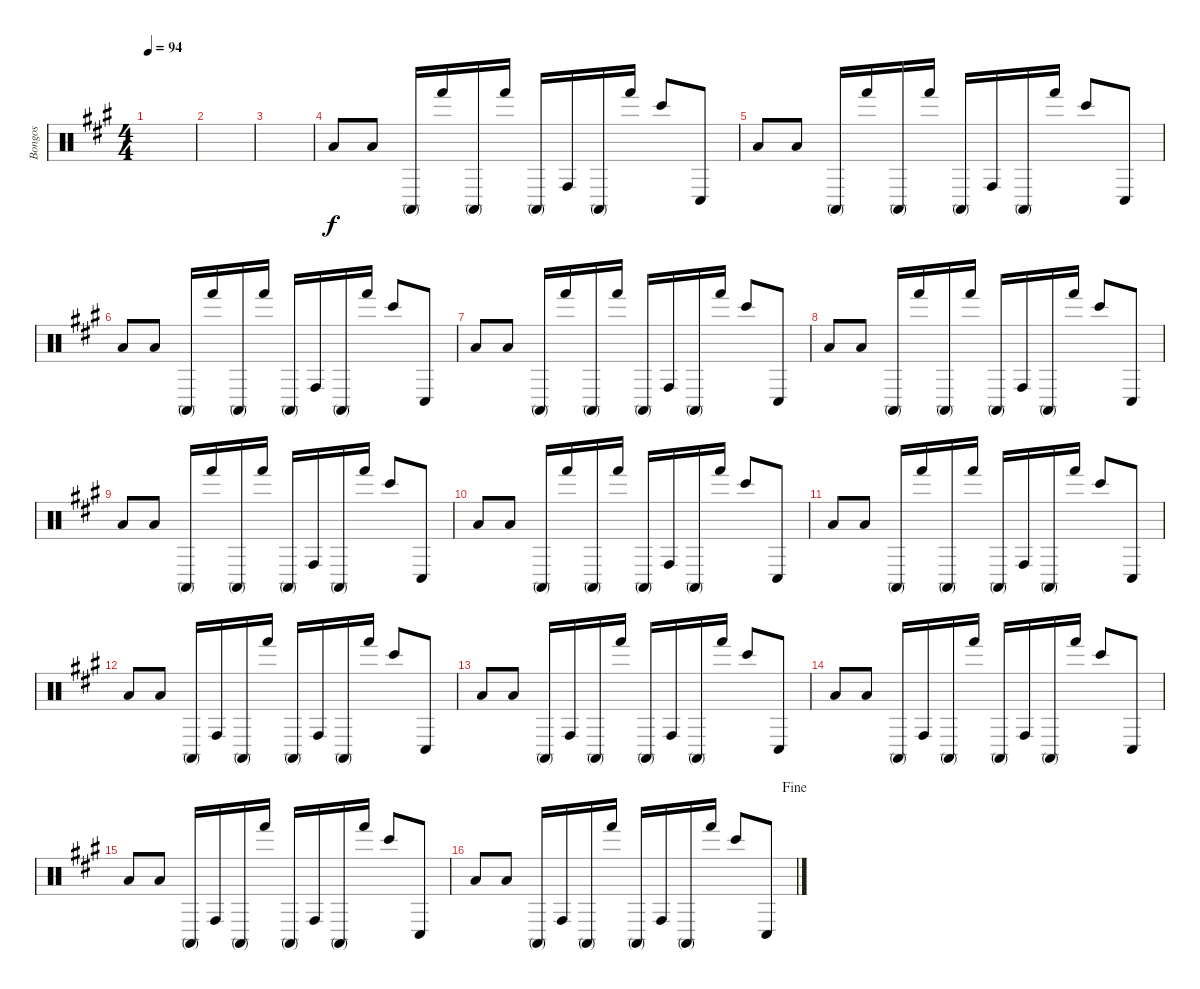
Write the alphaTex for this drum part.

\track ("Bongos" "Bongos") {instrument percussion}
\staff {score}
\articulation defaults
\ts (4 4)
\tempo 94
\clef neutral
\ks a
|
|
|
"Low Floor Tom (hit)".8{volume 3} "Low Floor Tom (hit)".8 "Conga high (mute)".16 "Hand (hit)".16 "Conga high (mute)".16 "Hand (hit)".16 "Conga high (mute)".16 "Conga high (hit)".16 "Conga high (mute)".16 "Hand (hit)".16 "Bongo High (hit)".8 "Conga low (hit)".8 |
"Low Floor Tom (hit)".8{volume 4} "Low Floor Tom (hit)".8 "Conga high (mute)".16 "Hand (hit)".16 "Conga high (mute)".16 "Hand (hit)".16 "Conga high (mute)".16 "Conga high (hit)".16 "Conga high (mute)".16 "Hand (hit)".16 "Bongo High (hit)".8 "Conga low (hit)".8 |
"Low Floor Tom (hit)".8{volume 6} "Low Floor Tom (hit)".8 "Conga high (mute)".16 "Hand (hit)".16 "Conga high (mute)".16 "Hand (hit)".16 "Conga high (mute)".16 "Conga high (hit)".16 "Conga high (mute)".16 "Hand (hit)".16 "Bongo High (hit)".8 "Conga low (hit)".8 |
"Low Floor Tom (hit)".8{volume 8} "Low Floor Tom (hit)".8 "Conga high (mute)".16 "Hand (hit)".16 "Conga high (mute)".16 "Hand (hit)".16 "Conga high (mute)".16 "Conga high (hit)".16 "Conga high (mute)".16 "Hand (hit)".16 "Bongo High (hit)".8 "Conga low (hit)".8 |
"Low Floor Tom (hit)".8{volume 9} "Low Floor Tom (hit)".8 "Conga high (mute)".16 "Hand (hit)".16 "Conga high (mute)".16 "Hand (hit)".16 "Conga high (mute)".16 "Conga high (hit)".16 "Conga high (mute)".16 "Hand (hit)".16 "Bongo High (hit)".8 "Conga low (hit)".8 |
"Low Floor Tom (hit)".8{volume 10} "Low Floor Tom (hit)".8 "Conga high (mute)".16 "Hand (hit)".16 "Conga high (mute)".16 "Hand (hit)".16 "Conga high (mute)".16 "Conga high (hit)".16 "Conga high (mute)".16 "Hand (hit)".16 "Bongo High (hit)".8 "Conga low (hit)".8 |
"Low Floor Tom (hit)".8 "Low Floor Tom (hit)".8 "Conga high (mute)".16 "Hand (hit)".16 "Conga high (mute)".16 "Hand (hit)".16 "Conga high (mute)".16 "Conga high (hit)".16 "Conga high (mute)".16 "Hand (hit)".16 "Bongo High (hit)".8 "Conga low (hit)".8 |
"Low Floor Tom (hit)".8 "Low Floor Tom (hit)".8 "Conga high (mute)".16 "Hand (hit)".16 "Conga high (mute)".16 "Hand (hit)".16 "Conga high (mute)".16 "Conga high (hit)".16 "Conga high (mute)".16 "Hand (hit)".16 "Bongo High (hit)".8 "Conga low (hit)".8 |
"Low Floor Tom (hit)".8 "Low Floor Tom (hit)".8 "Conga high (mute)".16 "Conga high (hit)".16 "Conga high (mute)".16 "Hand (hit)".16 "Conga high (mute)".16 "Conga high (hit)".16 "Conga high (mute)".16 "Hand (hit)".16 "Bongo High (hit)".8 "Conga low (hit)".8 |
"Low Floor Tom (hit)".8 "Low Floor Tom (hit)".8 "Conga high (mute)".16 "Conga high (hit)".16 "Conga high (mute)".16 "Hand (hit)".16 "Conga high (mute)".16 "Conga high (hit)".16 "Conga high (mute)".16 "Hand (hit)".16 "Bongo High (hit)".8 "Conga low (hit)".8 |
"Low Floor Tom (hit)".8 "Low Floor Tom (hit)".8 "Conga high (mute)".16 "Conga high (hit)".16 "Conga high (mute)".16 "Hand (hit)".16 "Conga high (mute)".16 "Conga high (hit)".16 "Conga high (mute)".16 "Hand (hit)".16 "Bongo High (hit)".8 "Conga low (hit)".8 |
"Low Floor Tom (hit)".8 "Low Floor Tom (hit)".8 "Conga high (mute)".16 "Conga high (hit)".16 "Conga high (mute)".16 "Hand (hit)".16 "Conga high (mute)".16 "Conga high (hit)".16 "Conga high (mute)".16 "Hand (hit)".16 "Bongo High (hit)".8 "Conga low (hit)".8 |
\jump fine "Low Floor Tom (hit)".8 "Low Floor Tom (hit)".8 "Conga high (mute)".16 "Conga high (hit)".16 "Conga high (mute)".16 "Hand (hit)".16 "Conga high (mute)".16 "Conga high (hit)".16 "Conga high (mute)".16 "Hand (hit)".16 "Bongo High (hit)".8 "Conga low (hit)".8
